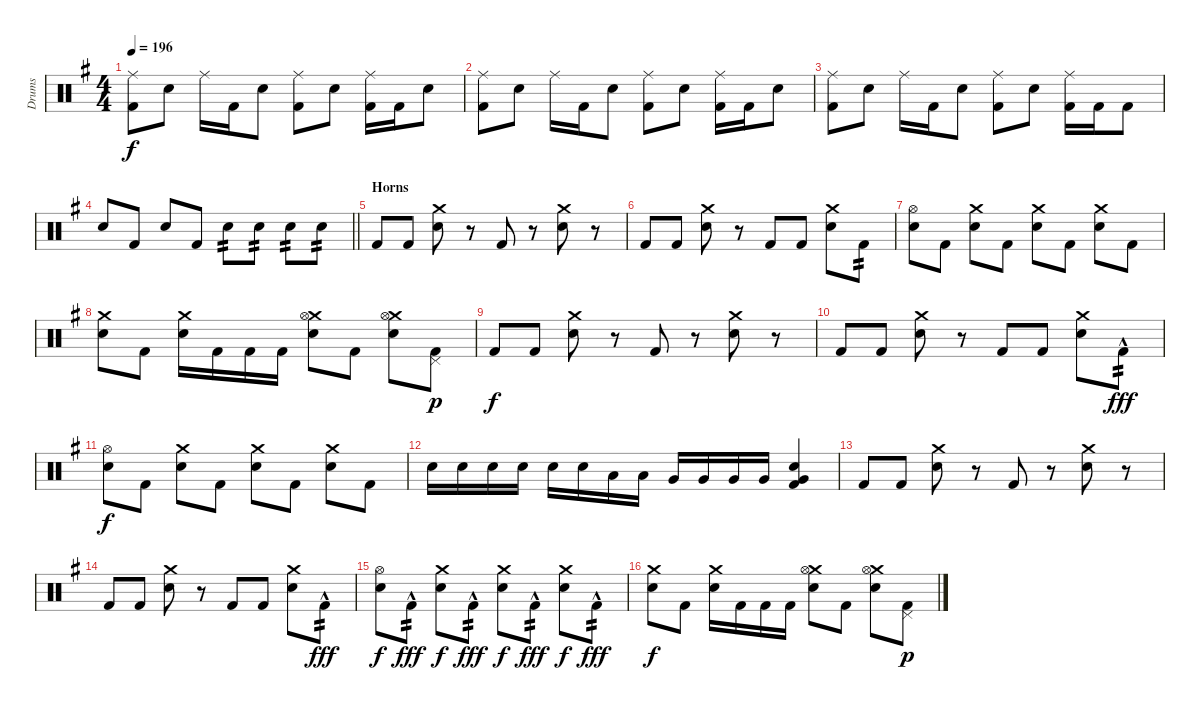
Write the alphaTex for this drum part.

\track ("Drums" "Drums") {instrument percussion}
\staff {score}
\articulation defaults
\ts (4 4)
\tempo 196
\clef neutral
\ks eminor
("Ride (middle)" "Kick (hit) 2").8{dy f} "Electric Snare (hit)".8 "Ride (middle)".16 "Kick (hit) 2".16 "Electric Snare (hit)".8 ("Ride (middle)" "Kick (hit) 2").8 "Electric Snare (hit)".8 ("Ride (middle)" "Kick (hit) 2").16 "Kick (hit) 2".16 "Electric Snare (hit)".8 |
("Ride (middle)" "Kick (hit) 2").8 "Electric Snare (hit)".8 "Ride (middle)".16 "Kick (hit) 2".16 "Electric Snare (hit)".8 ("Ride (middle)" "Kick (hit) 2").8 "Electric Snare (hit)".8 ("Ride (middle)" "Kick (hit) 2").16 "Kick (hit) 2".16 "Electric Snare (hit)".8 |
("Ride (middle)" "Kick (hit) 2").8 "Electric Snare (hit)".8 "Ride (middle)".16 "Kick (hit) 2".16 "Electric Snare (hit)".8 ("Ride (middle)" "Kick (hit) 2").8 "Electric Snare (hit)".8 ("Ride (middle)" "Kick (hit) 2").16 "Kick (hit) 2".16 "Kick (hit) 2".8 |
\barLineRight lightlight "Electric Snare (hit)".8 "Kick (hit) 2".8 "Electric Snare (hit)".8 "Kick (hit) 2".8 "Electric Snare (hit)".8{tp 2} "Electric Snare (hit)".8{tp 2} "Electric Snare (hit)".8{tp 2} "Electric Snare (hit)".8{tp 2}
|
\section ("" "Horns")
"Kick (hit) 2".8 "Kick (hit) 2".8 ("Crash medium (hit)" "Electric Snare (hit)").8 r.8 "Kick (hit) 2".8 r.8 ("Crash medium (hit)" "Electric Snare (hit)").8 r.8 |
"Kick (hit) 2".8 "Kick (hit) 2".8 ("Crash medium (hit)" "Electric Snare (hit)").8 r.8 "Kick (hit) 2".8 "Kick (hit) 2".8 ("Crash medium (hit)" "Electric Snare (hit)").8 "Kick (hit) 2".8{tp 2} |
("Hi-Hat (open)" "Electric Snare (hit)").8 "Kick (hit) 2".8 ("Crash medium (hit)" "Electric Snare (hit)").8 "Kick (hit) 2".8 ("Crash medium (hit)" "Electric Snare (hit)").8 "Kick (hit) 2".8 ("Crash medium (hit)" "Electric Snare (hit)").8 "Kick (hit) 2".8 |
("Crash medium (hit)" "Electric Snare (hit)").8 "Kick (hit) 2".8 ("Crash medium (hit)" "Electric Snare (hit)").16 "Kick (hit) 2".16 "Kick (hit) 2".16 "Kick (hit) 2".16 ("Crash medium (hit)" "Hi-Hat (open)" "Electric Snare (hit)").8 "Kick (hit) 2".8 ("Crash medium (hit)" "Hi-Hat (open)" "Electric Snare (hit)").8 ("Pedal Hi-Hat (hit)" "Kick (hit) 2").8{dy p} |
"Kick (hit) 2".8{dy f} "Kick (hit) 2".8 ("Crash medium (hit)" "Electric Snare (hit)").8 r.8 "Kick (hit) 2".8 r.8 ("Crash medium (hit)" "Electric Snare (hit)").8 r.8 |
"Kick (hit) 2".8 "Kick (hit) 2".8 ("Crash medium (hit)" "Electric Snare (hit)").8 r.8 "Kick (hit) 2".8 "Kick (hit) 2".8 ("Crash medium (hit)" "Electric Snare (hit)").8 "Kick (hit) 2"{hac}.8{tp 2 dy fff} |
("Hi-Hat (open)" "Electric Snare (hit)").8{dy f} "Kick (hit) 2".8 ("Crash medium (hit)" "Electric Snare (hit)").8 "Kick (hit) 2".8 ("Crash medium (hit)" "Electric Snare (hit)").8 "Kick (hit) 2".8 ("Crash medium (hit)" "Electric Snare (hit)").8 "Kick (hit) 2".8 |
"Electric Snare (hit)".16 "Electric Snare (hit)".16 "Electric Snare (hit)".16 "Electric Snare (hit)".16 "Electric Snare (hit)".16 "Electric Snare (hit)".16 "Low Tom (hit)".16 "Low Tom (hit)".16 "Very Low Tom (hit)".16 "Very Low Tom (hit)".16 "Very Low Tom (hit)".16 "Very Low Tom (hit)".16 ("Very Low Tom (hit)" "Electric Snare (hit)" "Kick (hit) 2").4 |
"Kick (hit) 2".8 "Kick (hit) 2".8 ("Crash medium (hit)" "Electric Snare (hit)").8 r.8 "Kick (hit) 2".8 r.8 ("Crash medium (hit)" "Electric Snare (hit)").8 r.8 |
"Kick (hit) 2".8 "Kick (hit) 2".8 ("Crash medium (hit)" "Electric Snare (hit)").8 r.8 "Kick (hit) 2".8 "Kick (hit) 2".8 ("Crash medium (hit)" "Electric Snare (hit)").8 "Kick (hit) 2"{hac}.8{tp 2 dy fff} |
("Hi-Hat (open)" "Electric Snare (hit)").8{dy f} "Kick (hit) 2"{hac}.8{tp 2 dy fff} ("Crash medium (hit)" "Electric Snare (hit)").8{dy f} "Kick (hit) 2"{hac}.8{tp 2 dy fff} ("Crash medium (hit)" "Electric Snare (hit)").8{dy f} "Kick (hit) 2"{hac}.8{tp 2 dy fff} ("Crash medium (hit)" "Electric Snare (hit)").8{dy f} "Kick (hit) 2"{hac}.8{tp 2 dy fff} |
("Crash medium (hit)" "Electric Snare (hit)").8{dy f} "Kick (hit) 2".8 ("Crash medium (hit)" "Electric Snare (hit)").16 "Kick (hit) 2".16 "Kick (hit) 2".16 "Kick (hit) 2".16 ("Crash medium (hit)" "Hi-Hat (open)" "Electric Snare (hit)").8 "Kick (hit) 2".8 ("Crash medium (hit)" "Hi-Hat (open)" "Electric Snare (hit)").8 ("Pedal Hi-Hat (hit)" "Kick (hit) 2").8{dy p}
